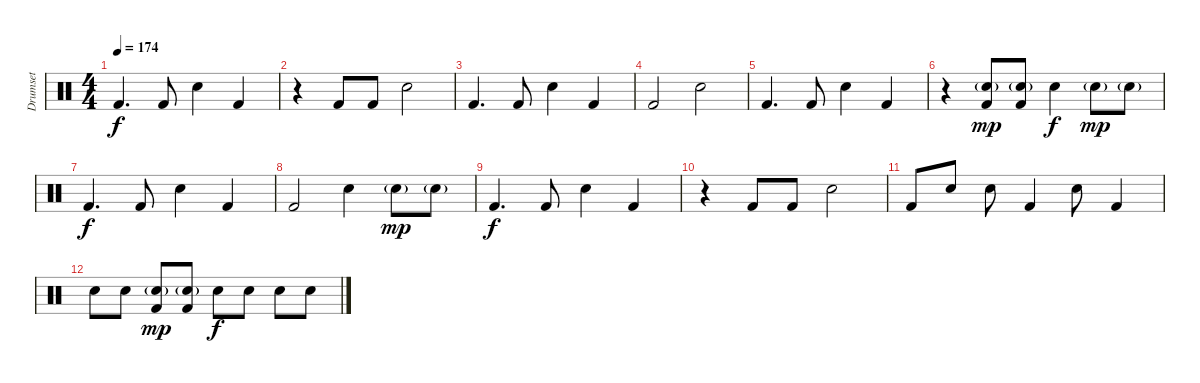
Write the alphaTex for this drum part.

\track ("Drumset" "Drumset") {instrument percussion}
\staff {score}
\articulation defaults
\ts (4 4)
\tempo 174
\clef neutral
\ks c "Kick (hit) 2".4{d dy f} "Kick (hit) 2".8 "Snare (hit) 2".4 "Kick (hit) 2".4
|
r.4 "Kick (hit) 2".8 "Kick (hit) 2".8 "Snare (hit) 2".2 |
"Kick (hit) 2".4{d} "Kick (hit) 2".8 "Snare (hit) 2".4 "Kick (hit) 2".4 |
"Kick (hit) 2".2 "Snare (hit) 2".2 |
"Kick (hit) 2".4{d} "Kick (hit) 2".8 "Snare (hit) 2".4 "Kick (hit) 2".4 |
r.4 ("Snare (hit) 2"{g} "Kick (hit) 2").8{dy mp} ("Snare (hit) 2"{g} "Kick (hit) 2").8 "Snare (hit) 2".4{dy f} "Snare (hit) 2"{g}.8{dy mp} "Snare (hit) 2"{g}.8 |
"Kick (hit) 2".4{d dy f} "Kick (hit) 2".8 "Snare (hit) 2".4 "Kick (hit) 2".4 |
"Kick (hit) 2".2 "Snare (hit) 2".4 "Snare (hit) 2"{g}.8{dy mp} "Snare (hit) 2"{g}.8 |
"Kick (hit) 2".4{d dy f} "Kick (hit) 2".8 "Snare (hit) 2".4 "Kick (hit) 2".4 |
r.4 "Kick (hit) 2".8 "Kick (hit) 2".8 "Snare (hit) 2".2 |
"Kick (hit) 2".8 "Snare (hit) 2".8 "Snare (hit) 2".8 "Kick (hit) 2".4 "Snare (hit) 2".8 "Kick (hit) 2".4 |
"Snare (hit) 2".8 "Snare (hit) 2".8 ("Snare (hit) 2"{g} "Kick (hit) 2").8{dy mp} ("Snare (hit) 2"{g} "Kick (hit) 2").8 "Snare (hit) 2".8{dy f} "Snare (hit) 2".8 "Snare (hit) 2".8 "Snare (hit) 2".8
